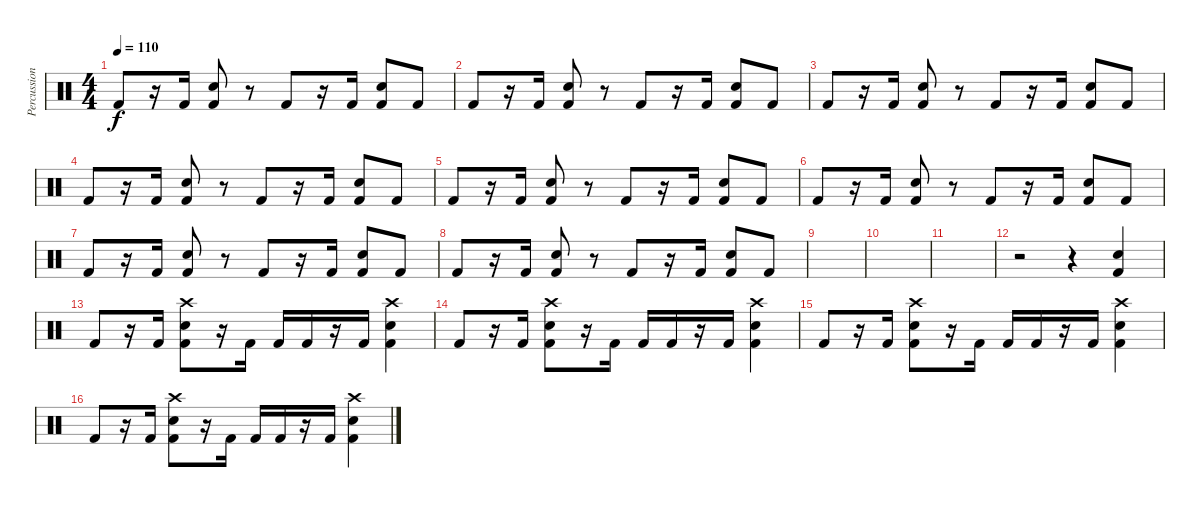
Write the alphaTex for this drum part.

\track ("Percussioni" "Percussion") {instrument percussion}
\staff {score}
\articulation defaults
\ts (4 4)
\tempo 110
\clef neutral
\ks c "Kick (hit) 2".8{dy f}
r.16 "Kick (hit) 2".16 ("Snare (hit) 2" "Kick (hit) 2").8 r.8 "Kick (hit) 2".8 r.16 "Kick (hit) 2".16 ("Snare (hit) 2" "Kick (hit) 2").8 "Kick (hit) 2".8 |
"Kick (hit) 2".8 r.16 "Kick (hit) 2".16 ("Snare (hit) 2" "Kick (hit) 2").8 r.8 "Kick (hit) 2".8 r.16 "Kick (hit) 2".16 ("Snare (hit) 2" "Kick (hit) 2").8 "Kick (hit) 2".8 |
"Kick (hit) 2".8 r.16 "Kick (hit) 2".16 ("Snare (hit) 2" "Kick (hit) 2").8 r.8 "Kick (hit) 2".8 r.16 "Kick (hit) 2".16 ("Snare (hit) 2" "Kick (hit) 2").8 "Kick (hit) 2".8 |
"Kick (hit) 2".8 r.16 "Kick (hit) 2".16 ("Snare (hit) 2" "Kick (hit) 2").8 r.8 "Kick (hit) 2".8 r.16 "Kick (hit) 2".16 ("Snare (hit) 2" "Kick (hit) 2").8 "Kick (hit) 2".8 |
"Kick (hit) 2".8 r.16 "Kick (hit) 2".16 ("Snare (hit) 2" "Kick (hit) 2").8 r.8 "Kick (hit) 2".8 r.16 "Kick (hit) 2".16 ("Snare (hit) 2" "Kick (hit) 2").8 "Kick (hit) 2".8 |
"Kick (hit) 2".8 r.16 "Kick (hit) 2".16 ("Snare (hit) 2" "Kick (hit) 2").8 r.8 "Kick (hit) 2".8 r.16 "Kick (hit) 2".16 ("Snare (hit) 2" "Kick (hit) 2").8 "Kick (hit) 2".8 |
"Kick (hit) 2".8 r.16 "Kick (hit) 2".16 ("Snare (hit) 2" "Kick (hit) 2").8 r.8 "Kick (hit) 2".8 r.16 "Kick (hit) 2".16 ("Snare (hit) 2" "Kick (hit) 2").8 "Kick (hit) 2".8 |
"Kick (hit) 2".8 r.16 "Kick (hit) 2".16 ("Snare (hit) 2" "Kick (hit) 2").8 r.8 "Kick (hit) 2".8 r.16 "Kick (hit) 2".16 ("Snare (hit) 2" "Kick (hit) 2").8 "Kick (hit) 2".8 |
|
|
|
r.2 r.4 ("Snare (hit) 2" "Kick (hit) 2").4 |
"Kick (hit) 2".8 r.16 "Kick (hit) 2".16 ("Snare (hit) 2" "Kick (hit) 2" "Crash high (hit)").8 r.16 "Kick (hit) 2".16 "Kick (hit) 2".16 "Kick (hit) 2".16 r.16 "Kick (hit) 2".16 ("Snare (hit) 2" "Kick (hit) 2" "Crash high (hit)").4 |
"Kick (hit) 2".8 r.16 "Kick (hit) 2".16 ("Snare (hit) 2" "Kick (hit) 2" "Crash high (hit)").8 r.16 "Kick (hit) 2".16 "Kick (hit) 2".16 "Kick (hit) 2".16 r.16 "Kick (hit) 2".16 ("Snare (hit) 2" "Kick (hit) 2" "Crash high (hit)").4 |
"Kick (hit) 2".8 r.16 "Kick (hit) 2".16 ("Snare (hit) 2" "Kick (hit) 2" "Crash high (hit)").8 r.16 "Kick (hit) 2".16 "Kick (hit) 2".16 "Kick (hit) 2".16 r.16 "Kick (hit) 2".16 ("Snare (hit) 2" "Kick (hit) 2" "Crash high (hit)").4 |
"Kick (hit) 2".8 r.16 "Kick (hit) 2".16 ("Snare (hit) 2" "Kick (hit) 2" "Crash high (hit)").8 r.16 "Kick (hit) 2".16 "Kick (hit) 2".16 "Kick (hit) 2".16 r.16 "Kick (hit) 2".16 ("Snare (hit) 2" "Kick (hit) 2" "Crash high (hit)").4
